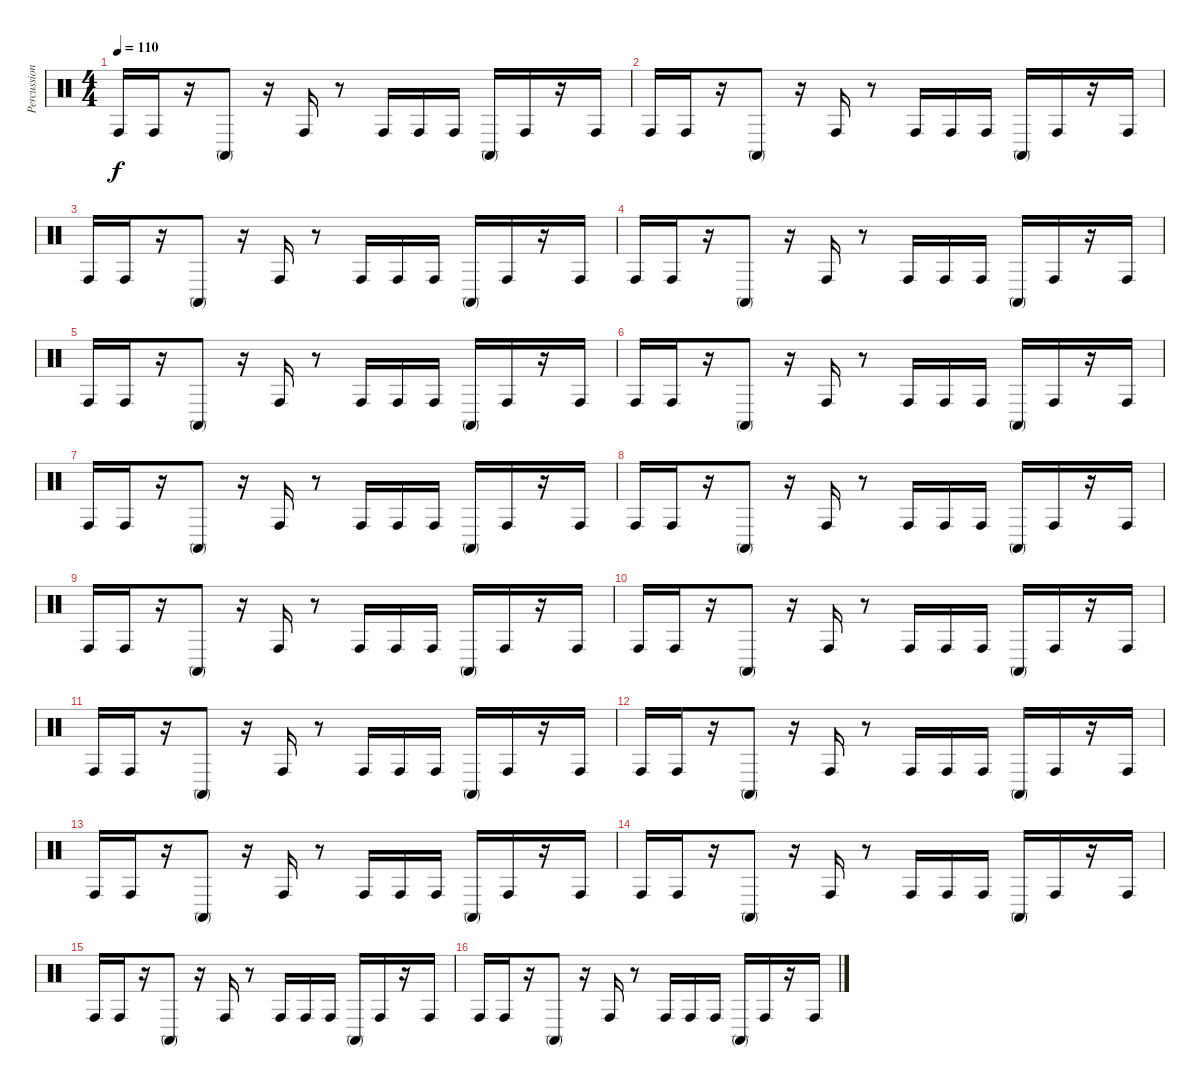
\track ("Percussion" "Percussion") {instrument percussion}
\staff {score}
\articulation defaults
\ts (4 4)
\tempo 110
\clef neutral
\ks c "Conga high (hit)".16{dy f} "Conga high (hit)".16
r.16 "Conga high (mute)".8 r.16 "Conga high (hit)".16 r.8 "Conga high (hit)".16 "Conga high (hit)".16 "Conga high (hit)".16 "Conga high (mute)".16 "Conga high (hit)".16 r.16 "Conga high (hit)".16 |
"Conga high (hit)".16 "Conga high (hit)".16 r.16 "Conga high (mute)".8 r.16 "Conga high (hit)".16 r.8 "Conga high (hit)".16 "Conga high (hit)".16 "Conga high (hit)".16 "Conga high (mute)".16 "Conga high (hit)".16 r.16 "Conga high (hit)".16 |
"Conga high (hit)".16 "Conga high (hit)".16 r.16 "Conga high (mute)".8 r.16 "Conga high (hit)".16 r.8 "Conga high (hit)".16 "Conga high (hit)".16 "Conga high (hit)".16 "Conga high (mute)".16 "Conga high (hit)".16 r.16 "Conga high (hit)".16 |
"Conga high (hit)".16 "Conga high (hit)".16 r.16 "Conga high (mute)".8 r.16 "Conga high (hit)".16 r.8 "Conga high (hit)".16 "Conga high (hit)".16 "Conga high (hit)".16 "Conga high (mute)".16 "Conga high (hit)".16 r.16 "Conga high (hit)".16 |
"Conga high (hit)".16 "Conga high (hit)".16 r.16 "Conga high (mute)".8 r.16 "Conga high (hit)".16 r.8 "Conga high (hit)".16 "Conga high (hit)".16 "Conga high (hit)".16 "Conga high (mute)".16 "Conga high (hit)".16 r.16 "Conga high (hit)".16 |
"Conga high (hit)".16 "Conga high (hit)".16 r.16 "Conga high (mute)".8 r.16 "Conga high (hit)".16 r.8 "Conga high (hit)".16 "Conga high (hit)".16 "Conga high (hit)".16 "Conga high (mute)".16 "Conga high (hit)".16 r.16 "Conga high (hit)".16 |
"Conga high (hit)".16 "Conga high (hit)".16 r.16 "Conga high (mute)".8 r.16 "Conga high (hit)".16 r.8 "Conga high (hit)".16 "Conga high (hit)".16 "Conga high (hit)".16 "Conga high (mute)".16 "Conga high (hit)".16 r.16 "Conga high (hit)".16 |
"Conga high (hit)".16 "Conga high (hit)".16 r.16 "Conga high (mute)".8 r.16 "Conga high (hit)".16 r.8 "Conga high (hit)".16 "Conga high (hit)".16 "Conga high (hit)".16 "Conga high (mute)".16 "Conga high (hit)".16 r.16 "Conga high (hit)".16 |
"Conga high (hit)".16 "Conga high (hit)".16 r.16 "Conga high (mute)".8 r.16 "Conga high (hit)".16 r.8 "Conga high (hit)".16 "Conga high (hit)".16 "Conga high (hit)".16 "Conga high (mute)".16 "Conga high (hit)".16 r.16 "Conga high (hit)".16 |
"Conga high (hit)".16 "Conga high (hit)".16 r.16 "Conga high (mute)".8 r.16 "Conga high (hit)".16 r.8 "Conga high (hit)".16 "Conga high (hit)".16 "Conga high (hit)".16 "Conga high (mute)".16 "Conga high (hit)".16 r.16 "Conga high (hit)".16 |
"Conga high (hit)".16 "Conga high (hit)".16 r.16 "Conga high (mute)".8 r.16 "Conga high (hit)".16 r.8 "Conga high (hit)".16 "Conga high (hit)".16 "Conga high (hit)".16 "Conga high (mute)".16 "Conga high (hit)".16 r.16 "Conga high (hit)".16 |
"Conga high (hit)".16 "Conga high (hit)".16 r.16 "Conga high (mute)".8 r.16 "Conga high (hit)".16 r.8 "Conga high (hit)".16 "Conga high (hit)".16 "Conga high (hit)".16 "Conga high (mute)".16 "Conga high (hit)".16 r.16 "Conga high (hit)".16 |
"Conga high (hit)".16 "Conga high (hit)".16 r.16 "Conga high (mute)".8 r.16 "Conga high (hit)".16 r.8 "Conga high (hit)".16 "Conga high (hit)".16 "Conga high (hit)".16 "Conga high (mute)".16 "Conga high (hit)".16 r.16 "Conga high (hit)".16 |
"Conga high (hit)".16 "Conga high (hit)".16 r.16 "Conga high (mute)".8 r.16 "Conga high (hit)".16 r.8 "Conga high (hit)".16 "Conga high (hit)".16 "Conga high (hit)".16 "Conga high (mute)".16 "Conga high (hit)".16 r.16 "Conga high (hit)".16 |
"Conga high (hit)".16 "Conga high (hit)".16 r.16 "Conga high (mute)".8 r.16 "Conga high (hit)".16 r.8 "Conga high (hit)".16 "Conga high (hit)".16 "Conga high (hit)".16 "Conga high (mute)".16 "Conga high (hit)".16 r.16 "Conga high (hit)".16 |
"Conga high (hit)".16 "Conga high (hit)".16 r.16 "Conga high (mute)".8 r.16 "Conga high (hit)".16 r.8 "Conga high (hit)".16 "Conga high (hit)".16 "Conga high (hit)".16 "Conga high (mute)".16 "Conga high (hit)".16 r.16 "Conga high (hit)".16
